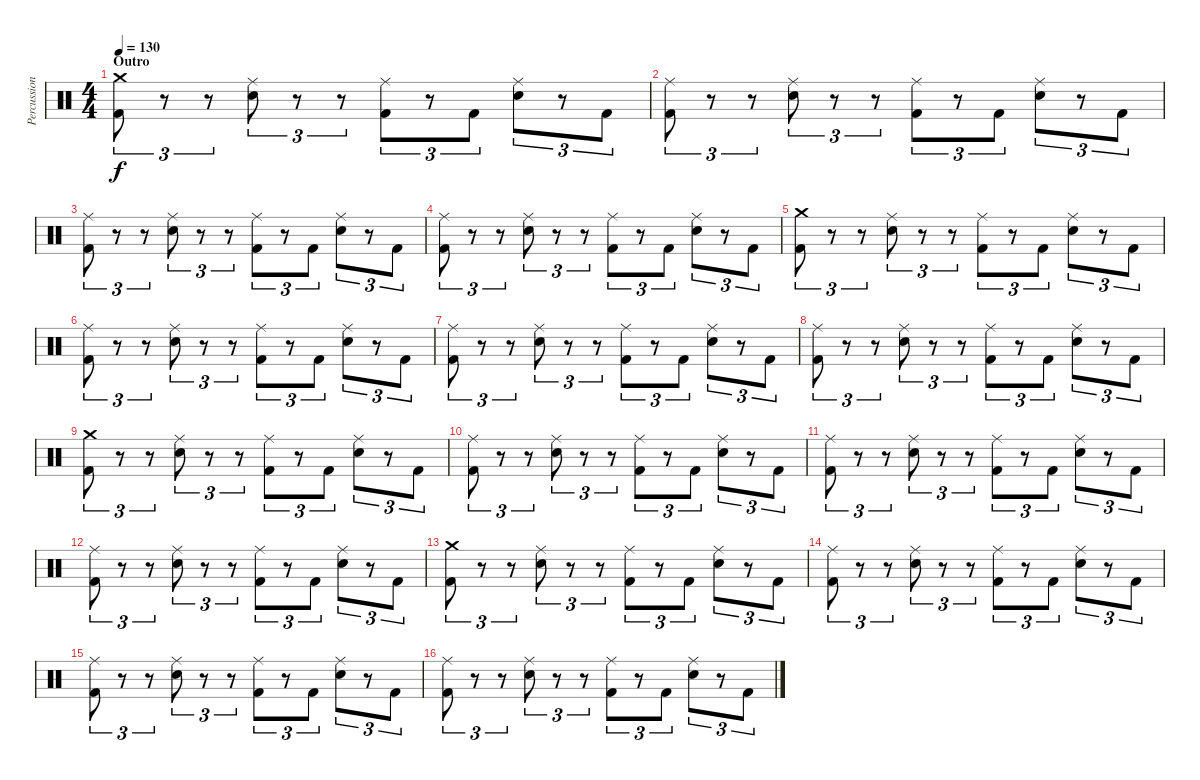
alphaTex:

\track ("Percussion" "Percussion") {instrument percussion}
\staff {score}
\articulation defaults
\ts (4 4)
\section ("" "Outro")
\tempo 130
\clef neutral
\ks c
("Crash medium (hit)" "Kick (hit) 2").8{tu (3 2) dy f} r.8{tu (3 2)} r.8{tu (3 2)} ("Ride (middle)" "Snare (hit) 2").8{tu (3 2)} r.8{tu (3 2)} r.8{tu (3 2)} ("Ride (middle)" "Kick (hit) 2").8{tu (3 2)} r.8{tu (3 2)} "Kick (hit) 2".8{tu (3 2)} ("Ride (middle)" "Snare (hit) 2").8{tu (3 2)} r.8{tu (3 2)} "Kick (hit) 2".8{tu (3 2)} |
("Ride (middle)" "Kick (hit) 2").8{tu (3 2)} r.8{tu (3 2)} r.8{tu (3 2)} ("Ride (middle)" "Snare (hit) 2").8{tu (3 2)} r.8{tu (3 2)} r.8{tu (3 2)} ("Ride (middle)" "Kick (hit) 2").8{tu (3 2)} r.8{tu (3 2)} "Kick (hit) 2".8{tu (3 2)} ("Ride (middle)" "Snare (hit) 2").8{tu (3 2)} r.8{tu (3 2)} "Kick (hit) 2".8{tu (3 2)} |
("Ride (middle)" "Kick (hit) 2").8{tu (3 2)} r.8{tu (3 2)} r.8{tu (3 2)} ("Ride (middle)" "Snare (hit) 2").8{tu (3 2)} r.8{tu (3 2)} r.8{tu (3 2)} ("Ride (middle)" "Kick (hit) 2").8{tu (3 2)} r.8{tu (3 2)} "Kick (hit) 2".8{tu (3 2)} ("Ride (middle)" "Snare (hit) 2").8{tu (3 2)} r.8{tu (3 2)} "Kick (hit) 2".8{tu (3 2)} |
("Ride (middle)" "Kick (hit) 2").8{tu (3 2)} r.8{tu (3 2)} r.8{tu (3 2)} ("Ride (middle)" "Snare (hit) 2").8{tu (3 2)} r.8{tu (3 2)} r.8{tu (3 2)} ("Ride (middle)" "Kick (hit) 2").8{tu (3 2)} r.8{tu (3 2)} "Kick (hit) 2".8{tu (3 2)} ("Ride (middle)" "Snare (hit) 2").8{tu (3 2)} r.8{tu (3 2)} "Kick (hit) 2".8{tu (3 2)} |
("Crash medium (hit)" "Kick (hit) 2").8{tu (3 2)} r.8{tu (3 2)} r.8{tu (3 2)} ("Ride (middle)" "Snare (hit) 2").8{tu (3 2)} r.8{tu (3 2)} r.8{tu (3 2)} ("Ride (middle)" "Kick (hit) 2").8{tu (3 2)} r.8{tu (3 2)} "Kick (hit) 2".8{tu (3 2)} ("Ride (middle)" "Snare (hit) 2").8{tu (3 2)} r.8{tu (3 2)} "Kick (hit) 2".8{tu (3 2)} |
("Ride (middle)" "Kick (hit) 2").8{tu (3 2)} r.8{tu (3 2)} r.8{tu (3 2)} ("Ride (middle)" "Snare (hit) 2").8{tu (3 2)} r.8{tu (3 2)} r.8{tu (3 2)} ("Ride (middle)" "Kick (hit) 2").8{tu (3 2)} r.8{tu (3 2)} "Kick (hit) 2".8{tu (3 2)} ("Ride (middle)" "Snare (hit) 2").8{tu (3 2)} r.8{tu (3 2)} "Kick (hit) 2".8{tu (3 2)} |
("Ride (middle)" "Kick (hit) 2").8{tu (3 2)} r.8{tu (3 2)} r.8{tu (3 2)} ("Ride (middle)" "Snare (hit) 2").8{tu (3 2)} r.8{tu (3 2)} r.8{tu (3 2)} ("Ride (middle)" "Kick (hit) 2").8{tu (3 2)} r.8{tu (3 2)} "Kick (hit) 2".8{tu (3 2)} ("Ride (middle)" "Snare (hit) 2").8{tu (3 2)} r.8{tu (3 2)} "Kick (hit) 2".8{tu (3 2)} |
("Ride (middle)" "Kick (hit) 2").8{tu (3 2)} r.8{tu (3 2)} r.8{tu (3 2)} ("Ride (middle)" "Snare (hit) 2").8{tu (3 2)} r.8{tu (3 2)} r.8{tu (3 2)} ("Ride (middle)" "Kick (hit) 2").8{tu (3 2)} r.8{tu (3 2)} "Kick (hit) 2".8{tu (3 2)} ("Ride (middle)" "Snare (hit) 2").8{tu (3 2)} r.8{tu (3 2)} "Kick (hit) 2".8{tu (3 2)} |
("Crash medium (hit)" "Kick (hit) 2").8{tu (3 2)} r.8{tu (3 2)} r.8{tu (3 2)} ("Ride (middle)" "Snare (hit) 2").8{tu (3 2)} r.8{tu (3 2)} r.8{tu (3 2)} ("Ride (middle)" "Kick (hit) 2").8{tu (3 2)} r.8{tu (3 2)} "Kick (hit) 2".8{tu (3 2)} ("Ride (middle)" "Snare (hit) 2").8{tu (3 2)} r.8{tu (3 2)} "Kick (hit) 2".8{tu (3 2)} |
("Ride (middle)" "Kick (hit) 2").8{tu (3 2)} r.8{tu (3 2)} r.8{tu (3 2)} ("Ride (middle)" "Snare (hit) 2").8{tu (3 2)} r.8{tu (3 2)} r.8{tu (3 2)} ("Ride (middle)" "Kick (hit) 2").8{tu (3 2)} r.8{tu (3 2)} "Kick (hit) 2".8{tu (3 2)} ("Ride (middle)" "Snare (hit) 2").8{tu (3 2)} r.8{tu (3 2)} "Kick (hit) 2".8{tu (3 2)} |
("Ride (middle)" "Kick (hit) 2").8{tu (3 2)} r.8{tu (3 2)} r.8{tu (3 2)} ("Ride (middle)" "Snare (hit) 2").8{tu (3 2)} r.8{tu (3 2)} r.8{tu (3 2)} ("Ride (middle)" "Kick (hit) 2").8{tu (3 2)} r.8{tu (3 2)} "Kick (hit) 2".8{tu (3 2)} ("Ride (middle)" "Snare (hit) 2").8{tu (3 2)} r.8{tu (3 2)} "Kick (hit) 2".8{tu (3 2)} |
("Ride (middle)" "Kick (hit) 2").8{tu (3 2)} r.8{tu (3 2)} r.8{tu (3 2)} ("Ride (middle)" "Snare (hit) 2").8{tu (3 2)} r.8{tu (3 2)} r.8{tu (3 2)} ("Ride (middle)" "Kick (hit) 2").8{tu (3 2)} r.8{tu (3 2)} "Kick (hit) 2".8{tu (3 2)} ("Ride (middle)" "Snare (hit) 2").8{tu (3 2)} r.8{tu (3 2)} "Kick (hit) 2".8{tu (3 2)} |
("Crash medium (hit)" "Kick (hit) 2").8{tu (3 2)} r.8{tu (3 2)} r.8{tu (3 2)} ("Ride (middle)" "Snare (hit) 2").8{tu (3 2)} r.8{tu (3 2)} r.8{tu (3 2)} ("Ride (middle)" "Kick (hit) 2").8{tu (3 2)} r.8{tu (3 2)} "Kick (hit) 2".8{tu (3 2)} ("Ride (middle)" "Snare (hit) 2").8{tu (3 2)} r.8{tu (3 2)} "Kick (hit) 2".8{tu (3 2)} |
("Ride (middle)" "Kick (hit) 2").8{tu (3 2)} r.8{tu (3 2)} r.8{tu (3 2)} ("Ride (middle)" "Snare (hit) 2").8{tu (3 2)} r.8{tu (3 2)} r.8{tu (3 2)} ("Ride (middle)" "Kick (hit) 2").8{tu (3 2)} r.8{tu (3 2)} "Kick (hit) 2".8{tu (3 2)} ("Ride (middle)" "Snare (hit) 2").8{tu (3 2)} r.8{tu (3 2)} "Kick (hit) 2".8{tu (3 2)} |
("Ride (middle)" "Kick (hit) 2").8{tu (3 2)} r.8{tu (3 2)} r.8{tu (3 2)} ("Ride (middle)" "Snare (hit) 2").8{tu (3 2)} r.8{tu (3 2)} r.8{tu (3 2)} ("Ride (middle)" "Kick (hit) 2").8{tu (3 2)} r.8{tu (3 2)} "Kick (hit) 2".8{tu (3 2)} ("Ride (middle)" "Snare (hit) 2").8{tu (3 2)} r.8{tu (3 2)} "Kick (hit) 2".8{tu (3 2)} |
("Ride (middle)" "Kick (hit) 2").8{tu (3 2)} r.8{tu (3 2)} r.8{tu (3 2)} ("Ride (middle)" "Snare (hit) 2").8{tu (3 2)} r.8{tu (3 2)} r.8{tu (3 2)} ("Ride (middle)" "Kick (hit) 2").8{tu (3 2)} r.8{tu (3 2)} "Kick (hit) 2".8{tu (3 2)} ("Ride (middle)" "Snare (hit) 2").8{tu (3 2)} r.8{tu (3 2)} "Kick (hit) 2".8{tu (3 2)}
